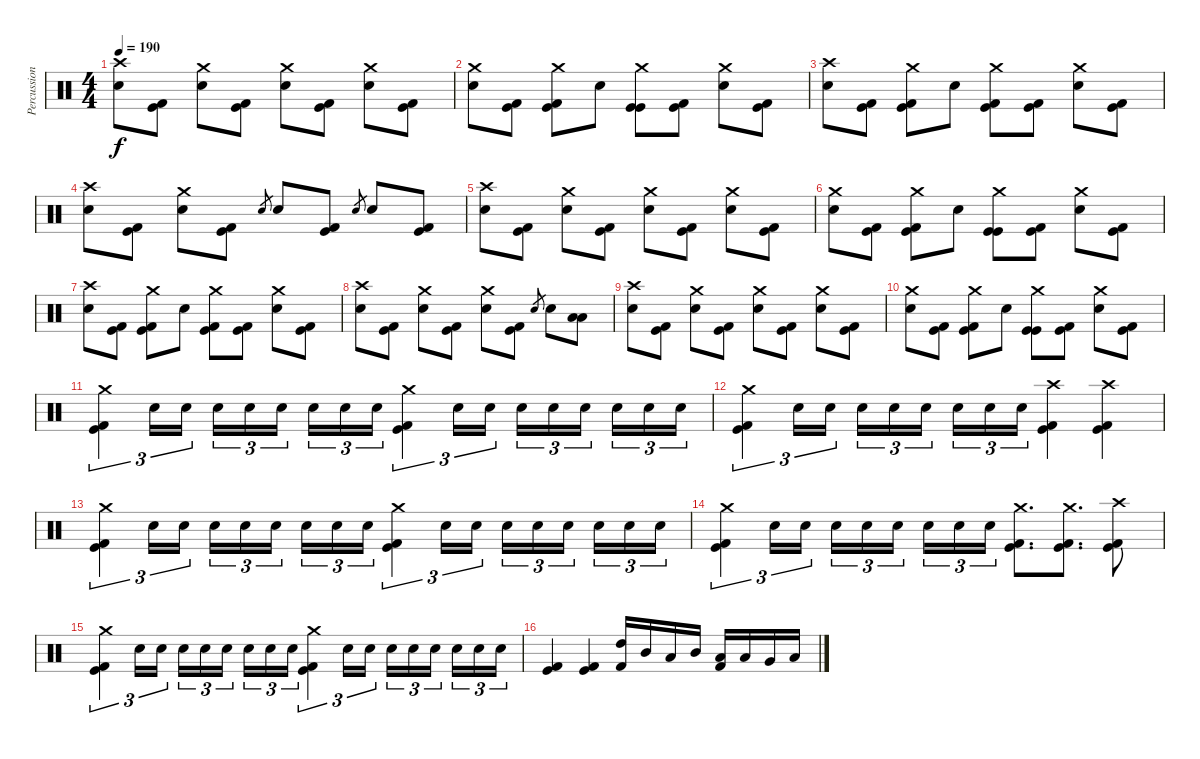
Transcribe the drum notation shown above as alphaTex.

\track ("Percussions" "Percussion") {instrument percussion}
\staff {score}
\articulation defaults
\ts (4 4)
\tempo 190
\clef neutral
\ks c
("Crash high (hit)" "Electric Snare (hit)").8{dy f} ("Kick (hit)" "Kick (hit) 2").8 ("Crash medium (hit)" "Electric Snare (hit)").8 ("Kick (hit)" "Kick (hit) 2").8 ("Crash medium (hit)" "Electric Snare (hit)").8 ("Kick (hit)" "Kick (hit) 2").8 ("Crash medium (hit)" "Electric Snare (hit)").8 ("Kick (hit)" "Kick (hit) 2").8 |
("Crash medium (hit)" "Electric Snare (hit)").8 ("Kick (hit)" "Kick (hit) 2").8 ("Crash medium (hit)" "Kick (hit)" "Kick (hit) 2").8 "Electric Snare (hit)".8 ("Crash medium (hit)" "Kick (hit)" "Kick (hit)").8 ("Kick (hit)" "Kick (hit) 2").8 ("Crash medium (hit)" "Electric Snare (hit)").8 ("Kick (hit)" "Kick (hit) 2").8 |
("Crash high (hit)" "Electric Snare (hit)").8 ("Kick (hit)" "Kick (hit) 2").8 ("Crash medium (hit)" "Kick (hit)" "Kick (hit) 2").8 "Electric Snare (hit)".8 ("Crash medium (hit)" "Kick (hit)" "Kick (hit) 2").8 ("Kick (hit)" "Kick (hit) 2").8 ("Crash medium (hit)" "Electric Snare (hit)").8 ("Kick (hit)" "Kick (hit) 2").8 |
("Crash high (hit)" "Electric Snare (hit)").8 ("Kick (hit)" "Kick (hit) 2").8 ("Crash medium (hit)" "Electric Snare (hit)").8 ("Kick (hit)" "Kick (hit) 2").8 "Electric Snare (hit)".8{gr} "Electric Snare (hit)".8 ("Kick (hit)" "Kick (hit) 2").8 "Electric Snare (hit)".8{gr} "Electric Snare (hit)".8 ("Kick (hit)" "Kick (hit) 2").8 |
("Crash high (hit)" "Electric Snare (hit)").8 ("Kick (hit)" "Kick (hit) 2").8 ("Crash medium (hit)" "Electric Snare (hit)").8 ("Kick (hit)" "Kick (hit) 2").8 ("Crash medium (hit)" "Electric Snare (hit)").8 ("Kick (hit)" "Kick (hit) 2").8 ("Crash medium (hit)" "Electric Snare (hit)").8 ("Kick (hit)" "Kick (hit) 2").8 |
("Crash medium (hit)" "Electric Snare (hit)").8 ("Kick (hit)" "Kick (hit) 2").8 ("Crash medium (hit)" "Kick (hit)" "Kick (hit) 2").8 "Electric Snare (hit)".8 ("Crash medium (hit)" "Kick (hit)" "Kick (hit)").8 ("Kick (hit)" "Kick (hit) 2").8 ("Crash medium (hit)" "Electric Snare (hit)").8 ("Kick (hit)" "Kick (hit) 2").8 |
("Crash high (hit)" "Electric Snare (hit)").8 ("Kick (hit)" "Kick (hit) 2").8 ("Crash medium (hit)" "Kick (hit)" "Kick (hit) 2").8 "Electric Snare (hit)".8 ("Crash medium (hit)" "Kick (hit)" "Kick (hit) 2").8 ("Kick (hit)" "Kick (hit) 2").8 ("Crash medium (hit)" "Electric Snare (hit)").8 ("Kick (hit)" "Kick (hit) 2").8 |
("Crash high (hit)" "Electric Snare (hit)").8 ("Kick (hit)" "Kick (hit) 2").8 ("Crash medium (hit)" "Electric Snare (hit)").8 ("Kick (hit)" "Kick (hit) 2").8 ("Crash medium (hit)" "Electric Snare (hit)").8 ("Kick (hit)" "Kick (hit) 2").8 "Electric Snare (hit)".8{gr} "Electric Snare (hit)".8 ("Low Floor Tom (hit)" "Low Floor Tom (hit)").8 |
("Crash high (hit)" "Electric Snare (hit)").8 ("Kick (hit)" "Kick (hit) 2").8 ("Crash medium (hit)" "Electric Snare (hit)").8 ("Kick (hit)" "Kick (hit) 2").8 ("Crash medium (hit)" "Electric Snare (hit)").8 ("Kick (hit)" "Kick (hit) 2").8 ("Crash medium (hit)" "Electric Snare (hit)").8 ("Kick (hit)" "Kick (hit) 2").8 |
("Crash medium (hit)" "Electric Snare (hit)").8 ("Kick (hit)" "Kick (hit) 2").8 ("Crash medium (hit)" "Kick (hit)" "Kick (hit) 2").8 "Electric Snare (hit)".8 ("Crash medium (hit)" "Kick (hit)" "Kick (hit)").8 ("Kick (hit)" "Kick (hit) 2").8 ("Crash medium (hit)" "Electric Snare (hit)").8 ("Kick (hit)" "Kick (hit) 2").8 |
("Crash medium (hit)" "Kick (hit)" "Kick (hit) 2").4{tu (3 2)} "Electric Snare (hit)".16{tu (3 2)} "Electric Snare (hit)".16{tu (3 2)} "Electric Snare (hit)".16{tu (3 2)} "Electric Snare (hit)".16{tu (3 2)} "Electric Snare (hit)".16{tu (3 2) beam splitsecondary} "Electric Snare (hit)".16{tu (3 2)} "Electric Snare (hit)".16{tu (3 2)} "Electric Snare (hit)".16{tu (3 2)} ("Crash medium (hit)" "Kick (hit)" "Kick (hit) 2").4{tu (3 2)} "Electric Snare (hit)".16{tu (3 2)} "Electric Snare (hit)".16{tu (3 2)} "Electric Snare (hit)".16{tu (3 2)} "Electric Snare (hit)".16{tu (3 2)} "Electric Snare (hit)".16{tu (3 2) beam splitsecondary} "Electric Snare (hit)".16{tu (3 2)} "Electric Snare (hit)".16{tu (3 2)} "Electric Snare (hit)".16{tu (3 2)} |
("Crash medium (hit)" "Kick (hit)" "Kick (hit) 2").4{tu (3 2)} "Electric Snare (hit)".16{tu (3 2)} "Electric Snare (hit)".16{tu (3 2)} "Electric Snare (hit)".16{tu (3 2)} "Electric Snare (hit)".16{tu (3 2)} "Electric Snare (hit)".16{tu (3 2) beam splitsecondary} "Electric Snare (hit)".16{tu (3 2)} "Electric Snare (hit)".16{tu (3 2)} "Electric Snare (hit)".16{tu (3 2)} ("Crash high (hit)" "Kick (hit)" "Kick (hit) 2").4 ("Crash high (hit)" "Kick (hit)" "Kick (hit) 2").4 |
("Crash medium (hit)" "Kick (hit)" "Kick (hit) 2").4{tu (3 2)} "Electric Snare (hit)".16{tu (3 2)} "Electric Snare (hit)".16{tu (3 2)} "Electric Snare (hit)".16{tu (3 2)} "Electric Snare (hit)".16{tu (3 2)} "Electric Snare (hit)".16{tu (3 2) beam splitsecondary} "Electric Snare (hit)".16{tu (3 2)} "Electric Snare (hit)".16{tu (3 2)} "Electric Snare (hit)".16{tu (3 2)} ("Crash medium (hit)" "Kick (hit)" "Kick (hit) 2").4{tu (3 2)} "Electric Snare (hit)".16{tu (3 2)} "Electric Snare (hit)".16{tu (3 2)} "Electric Snare (hit)".16{tu (3 2)} "Electric Snare (hit)".16{tu (3 2)} "Electric Snare (hit)".16{tu (3 2) beam splitsecondary} "Electric Snare (hit)".16{tu (3 2)} "Electric Snare (hit)".16{tu (3 2)} "Electric Snare (hit)".16{tu (3 2)} |
("Crash medium (hit)" "Kick (hit)" "Kick (hit) 2").4{tu (3 2)} "Electric Snare (hit)".16{tu (3 2)} "Electric Snare (hit)".16{tu (3 2)} "Electric Snare (hit)".16{tu (3 2)} "Electric Snare (hit)".16{tu (3 2)} "Electric Snare (hit)".16{tu (3 2) beam splitsecondary} "Electric Snare (hit)".16{tu (3 2)} "Electric Snare (hit)".16{tu (3 2)} "Electric Snare (hit)".16{tu (3 2)} ("Crash medium (hit)" "Kick (hit)" "Kick (hit) 2").8{d} ("Crash medium (hit)" "Kick (hit)" "Kick (hit) 2").8{d} ("Crash high (hit)" "Kick (hit)" "Kick (hit) 2").8 |
("Crash medium (hit)" "Kick (hit)" "Kick (hit) 2").4{tu (3 2)} "Electric Snare (hit)".16{tu (3 2)} "Electric Snare (hit)".16{tu (3 2)} "Electric Snare (hit)".16{tu (3 2)} "Electric Snare (hit)".16{tu (3 2)} "Electric Snare (hit)".16{tu (3 2) beam splitsecondary} "Electric Snare (hit)".16{tu (3 2)} "Electric Snare (hit)".16{tu (3 2)} "Electric Snare (hit)".16{tu (3 2)} ("Crash medium (hit)" "Kick (hit)" "Kick (hit) 2").4{tu (3 2)} "Electric Snare (hit)".16{tu (3 2)} "Electric Snare (hit)".16{tu (3 2)} "Electric Snare (hit)".16{tu (3 2)} "Electric Snare (hit)".16{tu (3 2)} "Electric Snare (hit)".16{tu (3 2) beam splitsecondary} "Electric Snare (hit)".16{tu (3 2)} "Electric Snare (hit)".16{tu (3 2)} "Electric Snare (hit)".16{tu (3 2)} |
("Kick (hit)" "Kick (hit) 2").4 ("Kick (hit)" "Kick (hit) 2").4 ("High Tom (hit)" "Kick (hit) 2").16 "Mid Tom (hit)".16 "Low Tom (hit)".16 "Mid Tom (hit)".16 ("Low Tom (hit)" "Kick (hit) 2").16 "Low Floor Tom (hit)".16 "Very Low Tom (hit)".16 "Low Tom (hit)".16
